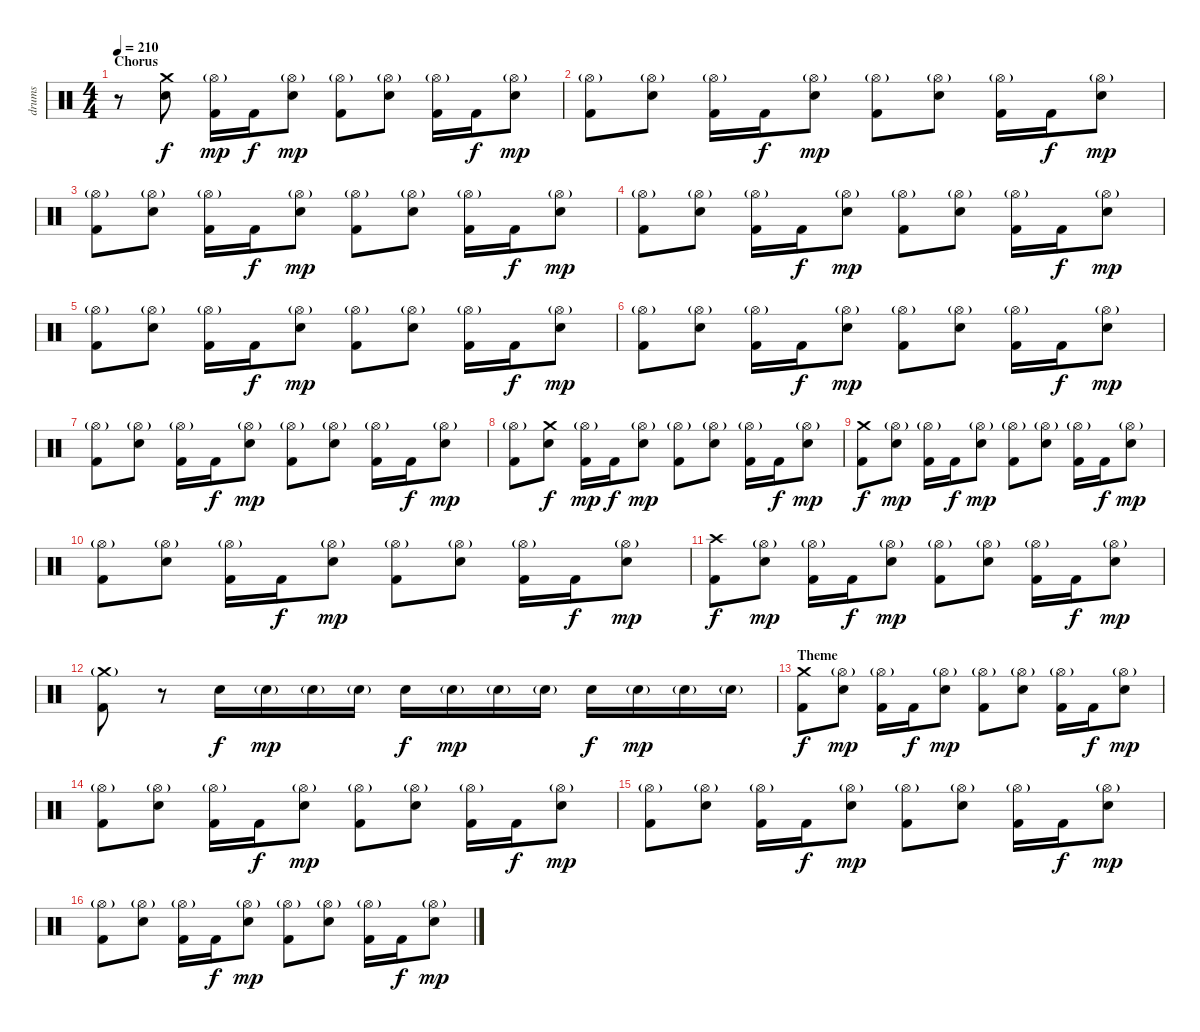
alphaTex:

\track ("drums" "drums") {instrument percussion}
\staff {score}
\articulation defaults
\ts (4 4)
\section ("" "Chorus")
\tempo 210
\clef neutral
\ks c
r.8{dy f} ("Crash medium (hit)" "Electric Snare (hit)").8 ("Hi-Hat (open)"{g} "Kick (hit) 2").16{dy mp} "Kick (hit) 2".16{dy f} ("Hi-Hat (open)"{g} "Electric Snare (hit)").8{dy mp} ("Hi-Hat (open)"{g} "Kick (hit) 2").8 ("Hi-Hat (open)"{g} "Electric Snare (hit)").8 ("Hi-Hat (open)"{g} "Kick (hit) 2").16 "Kick (hit) 2".16{dy f} ("Hi-Hat (open)"{g} "Electric Snare (hit)").8{dy mp} |
("Hi-Hat (open)"{g} "Kick (hit) 2").8 ("Hi-Hat (open)"{g} "Electric Snare (hit)").8 ("Hi-Hat (open)"{g} "Kick (hit) 2").16 "Kick (hit) 2".16{dy f} ("Hi-Hat (open)"{g} "Electric Snare (hit)").8{dy mp} ("Hi-Hat (open)"{g} "Kick (hit) 2").8 ("Hi-Hat (open)"{g} "Electric Snare (hit)").8 ("Hi-Hat (open)"{g} "Kick (hit) 2").16 "Kick (hit) 2".16{dy f} ("Hi-Hat (open)"{g} "Electric Snare (hit)").8{dy mp} |
("Hi-Hat (open)"{g} "Kick (hit) 2").8 ("Hi-Hat (open)"{g} "Electric Snare (hit)").8 ("Hi-Hat (open)"{g} "Kick (hit) 2").16 "Kick (hit) 2".16{dy f} ("Hi-Hat (open)"{g} "Electric Snare (hit)").8{dy mp} ("Hi-Hat (open)"{g} "Kick (hit) 2").8 ("Hi-Hat (open)"{g} "Electric Snare (hit)").8 ("Hi-Hat (open)"{g} "Kick (hit) 2").16 "Kick (hit) 2".16{dy f} ("Hi-Hat (open)"{g} "Electric Snare (hit)").8{dy mp} |
("Hi-Hat (open)"{g} "Kick (hit) 2").8 ("Hi-Hat (open)"{g} "Electric Snare (hit)").8 ("Hi-Hat (open)"{g} "Kick (hit) 2").16 "Kick (hit) 2".16{dy f} ("Hi-Hat (open)"{g} "Electric Snare (hit)").8{dy mp} ("Hi-Hat (open)"{g} "Kick (hit) 2").8 ("Hi-Hat (open)"{g} "Electric Snare (hit)").8 ("Hi-Hat (open)"{g} "Kick (hit) 2").16 "Kick (hit) 2".16{dy f} ("Hi-Hat (open)"{g} "Electric Snare (hit)").8{dy mp} |
("Hi-Hat (open)"{g} "Kick (hit) 2").8 ("Hi-Hat (open)"{g} "Electric Snare (hit)").8 ("Hi-Hat (open)"{g} "Kick (hit) 2").16 "Kick (hit) 2".16{dy f} ("Hi-Hat (open)"{g} "Electric Snare (hit)").8{dy mp} ("Hi-Hat (open)"{g} "Kick (hit) 2").8 ("Hi-Hat (open)"{g} "Electric Snare (hit)").8 ("Hi-Hat (open)"{g} "Kick (hit) 2").16 "Kick (hit) 2".16{dy f} ("Hi-Hat (open)"{g} "Electric Snare (hit)").8{dy mp} |
("Hi-Hat (open)"{g} "Kick (hit) 2").8 ("Hi-Hat (open)"{g} "Electric Snare (hit)").8 ("Hi-Hat (open)"{g} "Kick (hit) 2").16 "Kick (hit) 2".16{dy f} ("Hi-Hat (open)"{g} "Electric Snare (hit)").8{dy mp} ("Hi-Hat (open)"{g} "Kick (hit) 2").8 ("Hi-Hat (open)"{g} "Electric Snare (hit)").8 ("Hi-Hat (open)"{g} "Kick (hit) 2").16 "Kick (hit) 2".16{dy f} ("Hi-Hat (open)"{g} "Electric Snare (hit)").8{dy mp} |
("Hi-Hat (open)"{g} "Kick (hit) 2").8 ("Hi-Hat (open)"{g} "Electric Snare (hit)").8 ("Hi-Hat (open)"{g} "Kick (hit) 2").16 "Kick (hit) 2".16{dy f} ("Hi-Hat (open)"{g} "Electric Snare (hit)").8{dy mp} ("Hi-Hat (open)"{g} "Kick (hit) 2").8 ("Hi-Hat (open)"{g} "Electric Snare (hit)").8 ("Hi-Hat (open)"{g} "Kick (hit) 2").16 "Kick (hit) 2".16{dy f} ("Hi-Hat (open)"{g} "Electric Snare (hit)").8{dy mp} |
("Hi-Hat (open)"{g} "Kick (hit) 2").8 ("Crash medium (hit)" "Electric Snare (hit)").8{dy f} ("Hi-Hat (open)"{g} "Kick (hit) 2").16{dy mp} "Kick (hit) 2".16{dy f} ("Hi-Hat (open)"{g} "Electric Snare (hit)").8{dy mp} ("Hi-Hat (open)"{g} "Kick (hit) 2").8 ("Hi-Hat (open)"{g} "Electric Snare (hit)").8 ("Hi-Hat (open)"{g} "Kick (hit) 2").16 "Kick (hit) 2".16{dy f} ("Hi-Hat (open)"{g} "Electric Snare (hit)").8{dy mp} |
("Crash medium (hit)" "Kick (hit) 2").8{dy f} ("Hi-Hat (open)"{g} "Electric Snare (hit)").8{dy mp} ("Hi-Hat (open)"{g} "Kick (hit) 2").16 "Kick (hit) 2".16{dy f} ("Hi-Hat (open)"{g} "Electric Snare (hit)").8{dy mp} ("Hi-Hat (open)"{g} "Kick (hit) 2").8 ("Hi-Hat (open)"{g} "Electric Snare (hit)").8 ("Hi-Hat (open)"{g} "Kick (hit) 2").16 "Kick (hit) 2".16{dy f} ("Hi-Hat (open)"{g} "Electric Snare (hit)").8{dy mp} |
("Hi-Hat (open)"{g} "Kick (hit) 2").8 ("Hi-Hat (open)"{g} "Electric Snare (hit)").8 ("Hi-Hat (open)"{g} "Kick (hit) 2").16 "Kick (hit) 2".16{dy f} ("Hi-Hat (open)"{g} "Electric Snare (hit)").8{dy mp} ("Hi-Hat (open)"{g} "Kick (hit) 2").8 ("Hi-Hat (open)"{g} "Electric Snare (hit)").8 ("Hi-Hat (open)"{g} "Kick (hit) 2").16 "Kick (hit) 2".16{dy f} ("Hi-Hat (open)"{g} "Electric Snare (hit)").8{dy mp} |
("Crash high (hit)" "Kick (hit) 2").8{dy f} ("Hi-Hat (open)"{g} "Electric Snare (hit)").8{dy mp} ("Hi-Hat (open)"{g} "Kick (hit) 2").16 "Kick (hit) 2".16{dy f} ("Hi-Hat (open)"{g} "Electric Snare (hit)").8{dy mp} ("Hi-Hat (open)"{g} "Kick (hit) 2").8 ("Hi-Hat (open)"{g} "Electric Snare (hit)").8 ("Hi-Hat (open)"{g} "Kick (hit) 2").16 "Kick (hit) 2".16{dy f} ("Hi-Hat (open)"{g} "Electric Snare (hit)").8{dy mp} |
("Crash medium (hit)"{g} "Kick (hit) 2").8 r.8 "Electric Snare (hit)".16{dy f} "Electric Snare (hit)"{g}.16{dy mp} "Electric Snare (hit)"{g}.16 "Electric Snare (hit)"{g}.16 "Electric Snare (hit)".16{dy f} "Electric Snare (hit)"{g}.16{dy mp} "Electric Snare (hit)"{g}.16 "Electric Snare (hit)"{g}.16 "Electric Snare (hit)".16{dy f} "Electric Snare (hit)"{g}.16{dy mp} "Electric Snare (hit)"{g}.16 "Electric Snare (hit)"{g}.16 |
\section ("" "Theme")
("Crash medium (hit)" "Kick (hit) 2").8{dy f} ("Hi-Hat (open)"{g} "Electric Snare (hit)").8{dy mp} ("Hi-Hat (open)"{g} "Kick (hit) 2").16 "Kick (hit) 2".16{dy f} ("Hi-Hat (open)"{g} "Electric Snare (hit)").8{dy mp} ("Hi-Hat (open)"{g} "Kick (hit) 2").8 ("Hi-Hat (open)"{g} "Electric Snare (hit)").8 ("Hi-Hat (open)"{g} "Kick (hit) 2").16 "Kick (hit) 2".16{dy f} ("Hi-Hat (open)"{g} "Electric Snare (hit)").8{dy mp} |
("Hi-Hat (open)"{g} "Kick (hit) 2").8 ("Hi-Hat (open)"{g} "Electric Snare (hit)").8 ("Hi-Hat (open)"{g} "Kick (hit) 2").16 "Kick (hit) 2".16{dy f} ("Hi-Hat (open)"{g} "Electric Snare (hit)").8{dy mp} ("Hi-Hat (open)"{g} "Kick (hit) 2").8 ("Hi-Hat (open)"{g} "Electric Snare (hit)").8 ("Hi-Hat (open)"{g} "Kick (hit) 2").16 "Kick (hit) 2".16{dy f} ("Hi-Hat (open)"{g} "Electric Snare (hit)").8{dy mp} |
("Hi-Hat (open)"{g} "Kick (hit) 2").8 ("Hi-Hat (open)"{g} "Electric Snare (hit)").8 ("Hi-Hat (open)"{g} "Kick (hit) 2").16 "Kick (hit) 2".16{dy f} ("Hi-Hat (open)"{g} "Electric Snare (hit)").8{dy mp} ("Hi-Hat (open)"{g} "Kick (hit) 2").8 ("Hi-Hat (open)"{g} "Electric Snare (hit)").8 ("Hi-Hat (open)"{g} "Kick (hit) 2").16 "Kick (hit) 2".16{dy f} ("Hi-Hat (open)"{g} "Electric Snare (hit)").8{dy mp} |
("Hi-Hat (open)"{g} "Kick (hit) 2").8 ("Hi-Hat (open)"{g} "Electric Snare (hit)").8 ("Hi-Hat (open)"{g} "Kick (hit) 2").16 "Kick (hit) 2".16{dy f} ("Hi-Hat (open)"{g} "Electric Snare (hit)").8{dy mp} ("Hi-Hat (open)"{g} "Kick (hit) 2").8 ("Hi-Hat (open)"{g} "Electric Snare (hit)").8 ("Hi-Hat (open)"{g} "Kick (hit) 2").16 "Kick (hit) 2".16{dy f} ("Hi-Hat (open)"{g} "Electric Snare (hit)").8{dy mp}
